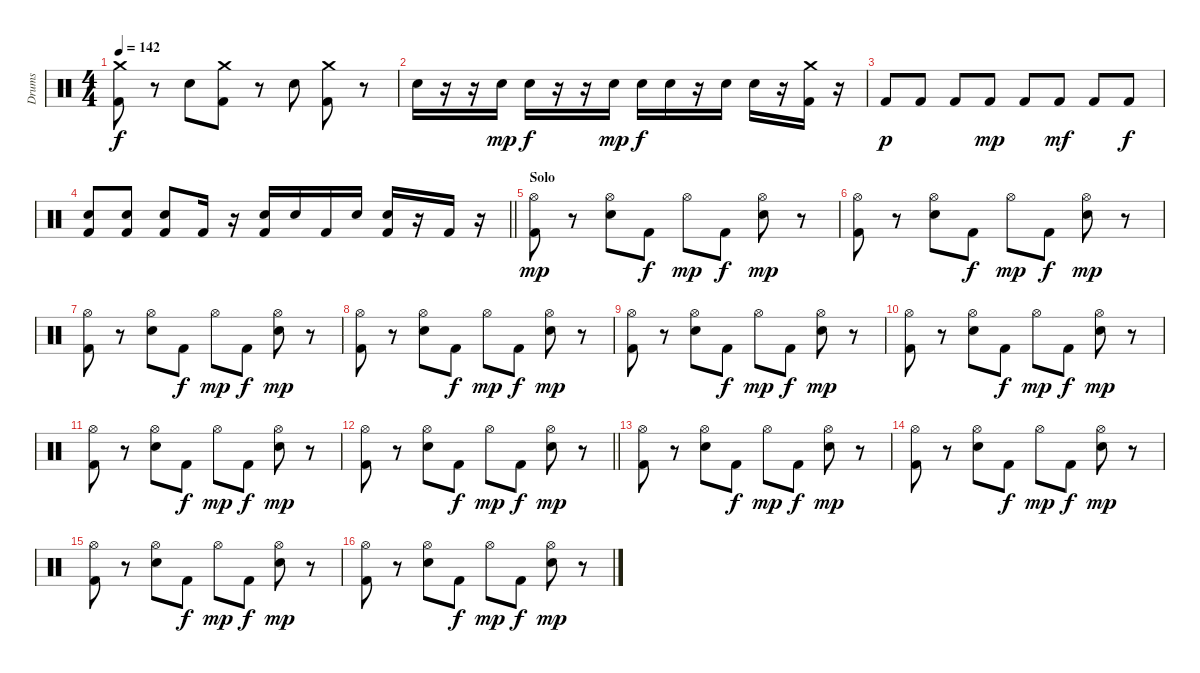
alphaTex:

\track ("Drums" "Drums") {instrument percussion}
\staff {score}
\articulation defaults
\ts (4 4)
\tempo 142
\clef neutral
\ks c
("Crash medium (hit)" "Kick (hit) 2").8{dy f} r.8 "Snare (hit) 2".8 ("Crash medium (hit)" "Kick (hit) 2").8 r.8 "Snare (hit) 2".8 ("Crash medium (hit)" "Kick (hit) 2").8 r.8 |
"Snare (hit) 2".16 r.16 r.16 "Snare (hit) 2".16{dy mp} "Snare (hit) 2".16{dy f} r.16 r.16 "Snare (hit) 2".16{dy mp} "Snare (hit) 2".16{dy f} "Snare (hit) 2".16 r.16 "Snare (hit) 2".16 "Snare (hit) 2".16 r.16 ("Crash medium (hit)" "Kick (hit) 2").16 r.16 |
"Kick (hit) 2".8{dy p} "Kick (hit) 2".8 "Kick (hit) 2".8 "Kick (hit) 2".8{dy mp} "Kick (hit) 2".8 "Kick (hit) 2".8{dy mf} "Kick (hit) 2".8 "Kick (hit) 2".8{dy f} |
\barLineRight lightlight
("Snare (hit) 2" "Kick (hit) 2").8 ("Snare (hit) 2" "Kick (hit) 2").8 ("Snare (hit) 2" "Kick (hit) 2").8 "Kick (hit) 2".16 r.16 ("Snare (hit) 2" "Kick (hit) 2").16 "Snare (hit) 2".16 "Kick (hit) 2".16 "Snare (hit) 2".16 ("Snare (hit) 2" "Kick (hit) 2").16 r.16 "Kick (hit) 2".16 r.16 |
\section ("" "Solo")
("Hi-Hat (open)" "Kick (hit) 2").8{dy mp} r.8 ("Hi-Hat (open)" "Snare (hit) 2").8 "Kick (hit) 2".8{dy f} "Hi-Hat (open)".8{dy mp} "Kick (hit) 2".8{dy f} ("Hi-Hat (open)" "Snare (hit) 2").8{dy mp} r.8 |
("Hi-Hat (open)" "Kick (hit) 2").8 r.8 ("Hi-Hat (open)" "Snare (hit) 2").8 "Kick (hit) 2".8{dy f} "Hi-Hat (open)".8{dy mp} "Kick (hit) 2".8{dy f} ("Hi-Hat (open)" "Snare (hit) 2").8{dy mp} r.8 |
("Hi-Hat (open)" "Kick (hit) 2").8 r.8 ("Hi-Hat (open)" "Snare (hit) 2").8 "Kick (hit) 2".8{dy f} "Hi-Hat (open)".8{dy mp} "Kick (hit) 2".8{dy f} ("Hi-Hat (open)" "Snare (hit) 2").8{dy mp} r.8 |
("Hi-Hat (open)" "Kick (hit) 2").8 r.8 ("Hi-Hat (open)" "Snare (hit) 2").8 "Kick (hit) 2".8{dy f} "Hi-Hat (open)".8{dy mp} "Kick (hit) 2".8{dy f} ("Hi-Hat (open)" "Snare (hit) 2").8{dy mp} r.8 |
("Hi-Hat (open)" "Kick (hit) 2").8 r.8 ("Hi-Hat (open)" "Snare (hit) 2").8 "Kick (hit) 2".8{dy f} "Hi-Hat (open)".8{dy mp} "Kick (hit) 2".8{dy f} ("Hi-Hat (open)" "Snare (hit) 2").8{dy mp} r.8 |
("Hi-Hat (open)" "Kick (hit) 2").8 r.8 ("Hi-Hat (open)" "Snare (hit) 2").8 "Kick (hit) 2".8{dy f} "Hi-Hat (open)".8{dy mp} "Kick (hit) 2".8{dy f} ("Hi-Hat (open)" "Snare (hit) 2").8{dy mp} r.8 |
("Hi-Hat (open)" "Kick (hit) 2").8 r.8 ("Hi-Hat (open)" "Snare (hit) 2").8 "Kick (hit) 2".8{dy f} "Hi-Hat (open)".8{dy mp} "Kick (hit) 2".8{dy f} ("Hi-Hat (open)" "Snare (hit) 2").8{dy mp} r.8 |
\barLineRight lightlight
("Hi-Hat (open)" "Kick (hit) 2").8 r.8 ("Hi-Hat (open)" "Snare (hit) 2").8 "Kick (hit) 2".8{dy f} "Hi-Hat (open)".8{dy mp} "Kick (hit) 2".8{dy f} ("Hi-Hat (open)" "Snare (hit) 2").8{dy mp} r.8 |
("Hi-Hat (open)" "Kick (hit) 2").8 r.8 ("Hi-Hat (open)" "Snare (hit) 2").8 "Kick (hit) 2".8{dy f} "Hi-Hat (open)".8{dy mp} "Kick (hit) 2".8{dy f} ("Hi-Hat (open)" "Snare (hit) 2").8{dy mp} r.8 |
("Hi-Hat (open)" "Kick (hit) 2").8 r.8 ("Hi-Hat (open)" "Snare (hit) 2").8 "Kick (hit) 2".8{dy f} "Hi-Hat (open)".8{dy mp} "Kick (hit) 2".8{dy f} ("Hi-Hat (open)" "Snare (hit) 2").8{dy mp} r.8 |
("Hi-Hat (open)" "Kick (hit) 2").8 r.8 ("Hi-Hat (open)" "Snare (hit) 2").8 "Kick (hit) 2".8{dy f} "Hi-Hat (open)".8{dy mp} "Kick (hit) 2".8{dy f} ("Hi-Hat (open)" "Snare (hit) 2").8{dy mp} r.8 |
("Hi-Hat (open)" "Kick (hit) 2").8 r.8 ("Hi-Hat (open)" "Snare (hit) 2").8 "Kick (hit) 2".8{dy f} "Hi-Hat (open)".8{dy mp} "Kick (hit) 2".8{dy f} ("Hi-Hat (open)" "Snare (hit) 2").8{dy mp} r.8
